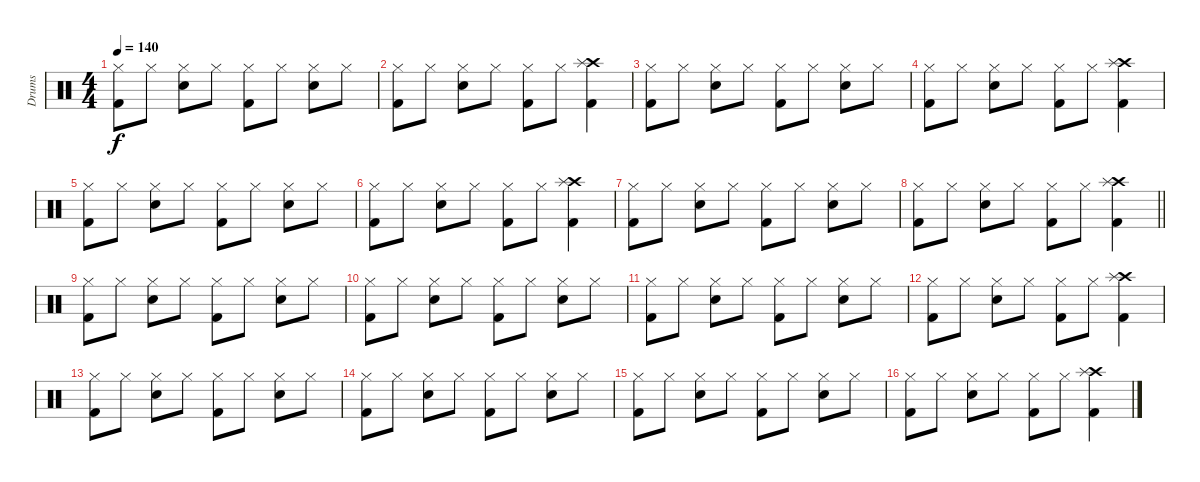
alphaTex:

\track ("Drums" "Drums") {instrument percussion}
\staff {score}
\articulation defaults
\ts (4 4)
\tempo 140
\clef neutral
\ks c
("Hi-Hat (closed)" "Kick (hit) 2").8{dy f} "Hi-Hat (closed)".8 ("Hi-Hat (closed)" "Snare (hit) 2").8 "Hi-Hat (closed)".8 ("Hi-Hat (closed)" "Kick (hit) 2").8 "Hi-Hat (closed)".8 ("Hi-Hat (closed)" "Snare (hit) 2").8 "Hi-Hat (closed)".8 |
("Hi-Hat (closed)" "Kick (hit) 2").8 "Hi-Hat (closed)".8 ("Hi-Hat (closed)" "Snare (hit) 2").8 "Hi-Hat (closed)".8 ("Hi-Hat (closed)" "Kick (hit) 2").8 "Hi-Hat (closed)".8 ("Crash high (hit)" "Splash (hit)" "Kick (hit) 2").4 |
("Hi-Hat (closed)" "Kick (hit) 2").8 "Hi-Hat (closed)".8 ("Hi-Hat (closed)" "Snare (hit) 2").8 "Hi-Hat (closed)".8 ("Hi-Hat (closed)" "Kick (hit) 2").8 "Hi-Hat (closed)".8 ("Hi-Hat (closed)" "Snare (hit) 2").8 "Hi-Hat (closed)".8 |
("Hi-Hat (closed)" "Kick (hit) 2").8 "Hi-Hat (closed)".8 ("Hi-Hat (closed)" "Snare (hit) 2").8 "Hi-Hat (closed)".8 ("Hi-Hat (closed)" "Kick (hit) 2").8 "Hi-Hat (closed)".8 ("Crash high (hit)" "Splash (hit)" "Kick (hit) 2").4 |
("Hi-Hat (closed)" "Kick (hit) 2").8 "Hi-Hat (closed)".8 ("Hi-Hat (closed)" "Snare (hit) 2").8 "Hi-Hat (closed)".8 ("Hi-Hat (closed)" "Kick (hit) 2").8 "Hi-Hat (closed)".8 ("Hi-Hat (closed)" "Snare (hit) 2").8 "Hi-Hat (closed)".8 |
("Hi-Hat (closed)" "Kick (hit) 2").8 "Hi-Hat (closed)".8 ("Hi-Hat (closed)" "Snare (hit) 2").8 "Hi-Hat (closed)".8 ("Hi-Hat (closed)" "Kick (hit) 2").8 "Hi-Hat (closed)".8 ("Crash high (hit)" "Splash (hit)" "Kick (hit) 2").4 |
("Hi-Hat (closed)" "Kick (hit) 2").8 "Hi-Hat (closed)".8 ("Hi-Hat (closed)" "Snare (hit) 2").8 "Hi-Hat (closed)".8 ("Hi-Hat (closed)" "Kick (hit) 2").8 "Hi-Hat (closed)".8 ("Hi-Hat (closed)" "Snare (hit) 2").8 "Hi-Hat (closed)".8 |
\barLineRight lightlight
("Hi-Hat (closed)" "Kick (hit) 2").8 "Hi-Hat (closed)".8 ("Hi-Hat (closed)" "Snare (hit) 2").8 "Hi-Hat (closed)".8 ("Hi-Hat (closed)" "Kick (hit) 2").8 "Hi-Hat (closed)".8 ("Crash high (hit)" "Splash (hit)" "Kick (hit) 2").4 |
("Hi-Hat (closed)" "Kick (hit) 2").8 "Hi-Hat (closed)".8 ("Hi-Hat (closed)" "Snare (hit) 2").8 "Hi-Hat (closed)".8 ("Hi-Hat (closed)" "Kick (hit) 2").8 "Hi-Hat (closed)".8 ("Hi-Hat (closed)" "Snare (hit) 2").8 "Hi-Hat (closed)".8 |
("Hi-Hat (closed)" "Kick (hit) 2").8 "Hi-Hat (closed)".8 ("Hi-Hat (closed)" "Snare (hit) 2").8 "Hi-Hat (closed)".8 ("Hi-Hat (closed)" "Kick (hit) 2").8 "Hi-Hat (closed)".8 ("Hi-Hat (closed)" "Snare (hit) 2").8 "Hi-Hat (closed)".8 |
("Hi-Hat (closed)" "Kick (hit) 2").8 "Hi-Hat (closed)".8 ("Hi-Hat (closed)" "Snare (hit) 2").8 "Hi-Hat (closed)".8 ("Hi-Hat (closed)" "Kick (hit) 2").8 "Hi-Hat (closed)".8 ("Hi-Hat (closed)" "Snare (hit) 2").8 "Hi-Hat (closed)".8 |
("Hi-Hat (closed)" "Kick (hit) 2").8 "Hi-Hat (closed)".8 ("Hi-Hat (closed)" "Snare (hit) 2").8 "Hi-Hat (closed)".8 ("Hi-Hat (closed)" "Kick (hit) 2").8 "Hi-Hat (closed)".8 ("Crash high (hit)" "Splash (hit)" "Kick (hit) 2").4 |
("Hi-Hat (closed)" "Kick (hit) 2").8 "Hi-Hat (closed)".8 ("Hi-Hat (closed)" "Snare (hit) 2").8 "Hi-Hat (closed)".8 ("Hi-Hat (closed)" "Kick (hit) 2").8 "Hi-Hat (closed)".8 ("Hi-Hat (closed)" "Snare (hit) 2").8 "Hi-Hat (closed)".8 |
("Hi-Hat (closed)" "Kick (hit) 2").8 "Hi-Hat (closed)".8 ("Hi-Hat (closed)" "Snare (hit) 2").8 "Hi-Hat (closed)".8 ("Hi-Hat (closed)" "Kick (hit) 2").8 "Hi-Hat (closed)".8 ("Hi-Hat (closed)" "Snare (hit) 2").8 "Hi-Hat (closed)".8 |
("Hi-Hat (closed)" "Kick (hit) 2").8 "Hi-Hat (closed)".8 ("Hi-Hat (closed)" "Snare (hit) 2").8 "Hi-Hat (closed)".8 ("Hi-Hat (closed)" "Kick (hit) 2").8 "Hi-Hat (closed)".8 ("Hi-Hat (closed)" "Snare (hit) 2").8 "Hi-Hat (closed)".8 |
("Hi-Hat (closed)" "Kick (hit) 2").8 "Hi-Hat (closed)".8 ("Hi-Hat (closed)" "Snare (hit) 2").8 "Hi-Hat (closed)".8 ("Hi-Hat (closed)" "Kick (hit) 2").8 "Hi-Hat (closed)".8 ("Crash high (hit)" "Splash (hit)" "Kick (hit) 2").4
